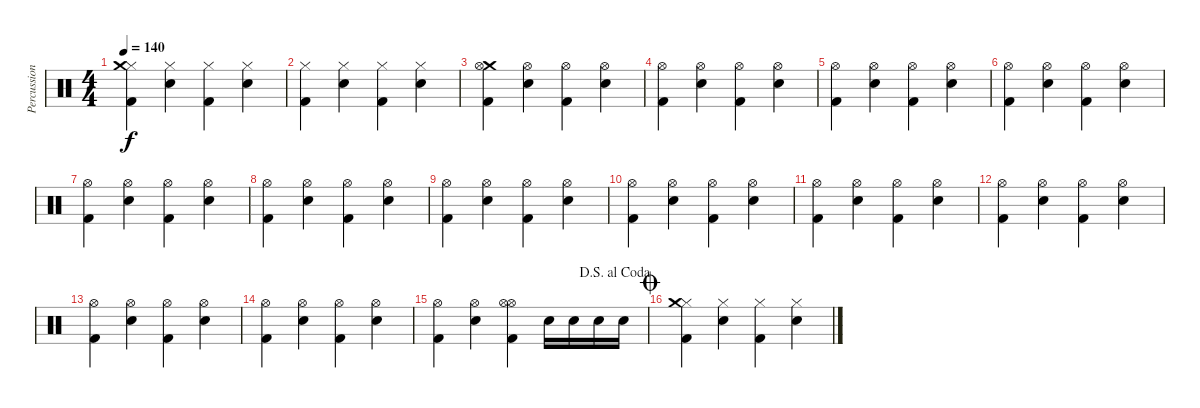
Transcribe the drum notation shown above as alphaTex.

\track ("Percussion" "Percussion") {instrument percussion}
\staff {score}
\articulation defaults
\ts (4 4)
\tempo 140
\clef neutral
\ks c
("Hi-Hat (closed)" "Kick (hit) 2" "Crash medium (hit)").4{dy f} ("Hi-Hat (closed)" "Electric Snare (hit)").4 ("Hi-Hat (closed)" "Kick (hit) 2").4 ("Hi-Hat (closed)" "Electric Snare (hit)").4 |
("Hi-Hat (closed)" "Kick (hit) 2").4 ("Hi-Hat (closed)" "Electric Snare (hit)").4 ("Hi-Hat (closed)" "Kick (hit) 2").4 ("Hi-Hat (closed)" "Electric Snare (hit)").4 |
("Kick (hit) 2" "Crash medium (hit)" "Hi-Hat (open)").4 ("Electric Snare (hit)" "Hi-Hat (open)").4 ("Kick (hit) 2" "Hi-Hat (open)").4 ("Electric Snare (hit)" "Hi-Hat (open)").4 |
("Kick (hit) 2" "Hi-Hat (open)").4 ("Electric Snare (hit)" "Hi-Hat (open)").4 ("Kick (hit) 2" "Hi-Hat (open)").4 ("Electric Snare (hit)" "Hi-Hat (open)").4 |
("Kick (hit) 2" "Hi-Hat (open)").4 ("Electric Snare (hit)" "Hi-Hat (open)").4 ("Kick (hit) 2" "Hi-Hat (open)").4 ("Electric Snare (hit)" "Hi-Hat (open)").4 |
("Kick (hit) 2" "Hi-Hat (open)").4 ("Electric Snare (hit)" "Hi-Hat (open)").4 ("Kick (hit) 2" "Hi-Hat (open)").4 ("Electric Snare (hit)" "Hi-Hat (open)").4 |
("Kick (hit) 2" "Hi-Hat (open)").4 ("Electric Snare (hit)" "Hi-Hat (open)").4 ("Kick (hit) 2" "Hi-Hat (open)").4 ("Electric Snare (hit)" "Hi-Hat (open)").4 |
("Kick (hit) 2" "Hi-Hat (open)").4 ("Electric Snare (hit)" "Hi-Hat (open)").4 ("Kick (hit) 2" "Hi-Hat (open)").4 ("Electric Snare (hit)" "Hi-Hat (open)").4 |
("Kick (hit) 2" "Hi-Hat (open)").4 ("Electric Snare (hit)" "Hi-Hat (open)").4 ("Kick (hit) 2" "Hi-Hat (open)").4 ("Electric Snare (hit)" "Hi-Hat (open)").4 |
("Kick (hit) 2" "Hi-Hat (open)").4 ("Electric Snare (hit)" "Hi-Hat (open)").4 ("Kick (hit) 2" "Hi-Hat (open)").4 ("Electric Snare (hit)" "Hi-Hat (open)").4 |
("Kick (hit) 2" "Hi-Hat (open)").4 ("Electric Snare (hit)" "Hi-Hat (open)").4 ("Kick (hit) 2" "Hi-Hat (open)").4 ("Electric Snare (hit)" "Hi-Hat (open)").4 |
("Kick (hit) 2" "Hi-Hat (open)").4 ("Electric Snare (hit)" "Hi-Hat (open)").4 ("Kick (hit) 2" "Hi-Hat (open)").4 ("Electric Snare (hit)" "Hi-Hat (open)").4 |
("Kick (hit) 2" "Hi-Hat (open)").4 ("Electric Snare (hit)" "Hi-Hat (open)").4 ("Kick (hit) 2" "Hi-Hat (open)").4 ("Electric Snare (hit)" "Hi-Hat (open)").4 |
("Kick (hit) 2" "Hi-Hat (open)").4 ("Electric Snare (hit)" "Hi-Hat (open)").4 ("Kick (hit) 2" "Hi-Hat (open)").4 ("Electric Snare (hit)" "Hi-Hat (open)").4 |
\jump dalsegnoalcoda
("Hi-Hat (open)" "Kick (hit) 2").4 ("Hi-Hat (open)" "Electric Snare (hit)").4 ("Hi-Hat (open)" "Kick (hit) 2" "Hi-Hat (open)").4 "Electric Snare (hit)".16 "Electric Snare (hit)".16 "Electric Snare (hit)".16 "Electric Snare (hit)".16 |
\jump coda
("Hi-Hat (closed)" "Kick (hit) 2" "Crash medium (hit)").4 ("Hi-Hat (closed)" "Electric Snare (hit)").4 ("Hi-Hat (closed)" "Kick (hit) 2").4 ("Hi-Hat (closed)" "Electric Snare (hit)").4
